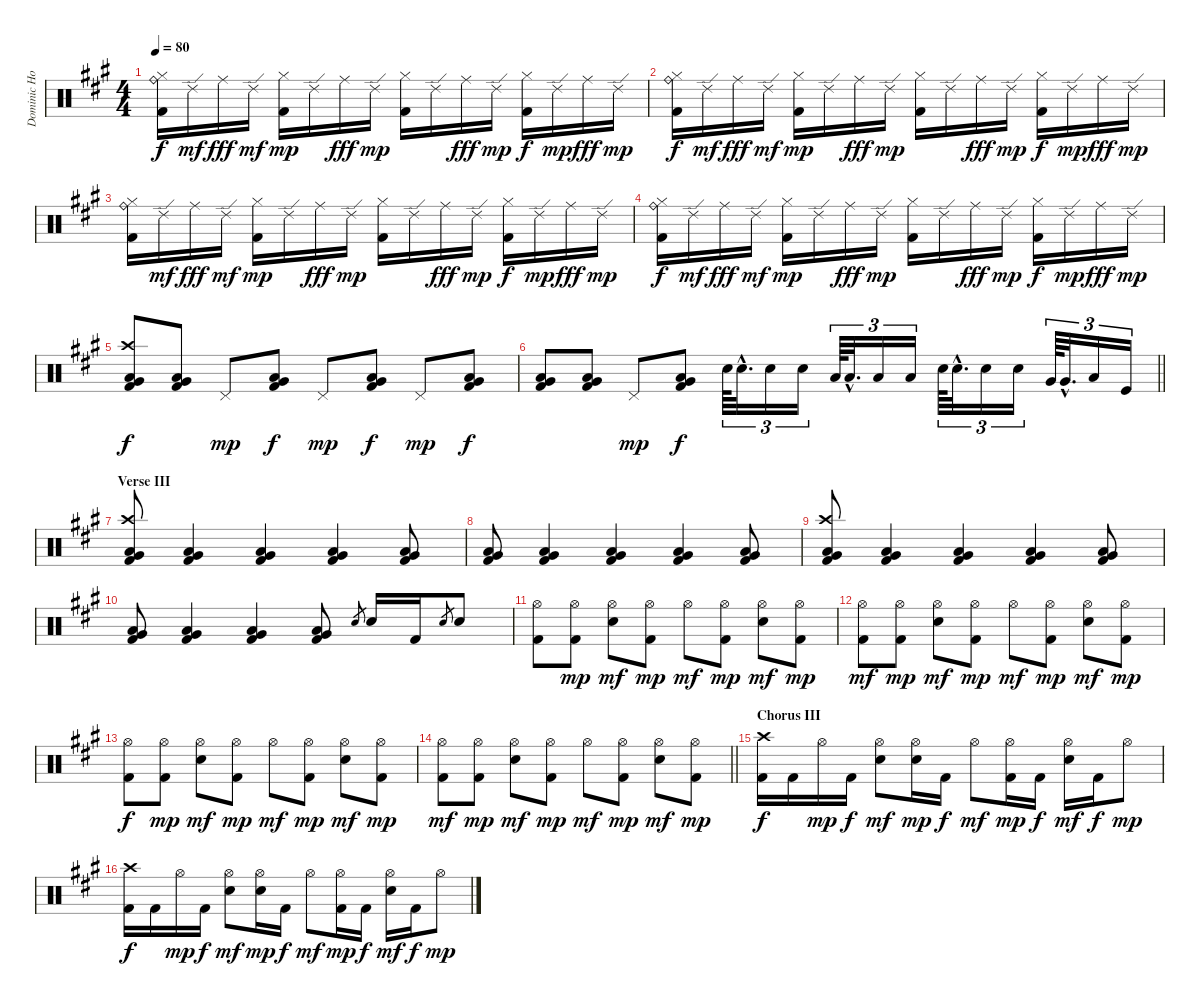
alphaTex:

\track ("Dominic Howard Drums" "Dominic Ho") {instrument percussion}
\staff {score}
\articulation defaults
\ts (4 4)
\tempo 80
\clef neutral
\ks a
("Ride (bell)" "Hi-Hat (closed)" "Kick (hit) 2").16{dy f} "Ride (edge) 2".16{dy mf} "Ride (middle)".16{dy fff} "Ride (edge) 2".16{dy mf} ("Hi-Hat (closed)" "Kick (hit) 2").16{dy mp} "Ride (edge) 2".16 "Ride (middle)".16{dy fff} "Ride (edge) 2".16{dy mp} ("Hi-Hat (closed)" "Kick (hit) 2").16 "Ride (edge) 2".16 "Ride (middle)".16{dy fff} "Ride (edge) 2".16{dy mp} ("Hi-Hat (closed)" "Kick (hit) 2").16{dy f} "Ride (edge) 2".16{dy mp} "Ride (middle)".16{dy fff} "Ride (edge) 2".16{dy mp} |
("Ride (bell)" "Hi-Hat (closed)" "Kick (hit) 2").16{dy f} "Ride (edge) 2".16{dy mf} "Ride (middle)".16{dy fff} "Ride (edge) 2".16{dy mf} ("Hi-Hat (closed)" "Kick (hit) 2").16{dy mp} "Ride (edge) 2".16 "Ride (middle)".16{dy fff} "Ride (edge) 2".16{dy mp} ("Hi-Hat (closed)" "Kick (hit) 2").16 "Ride (edge) 2".16 "Ride (middle)".16{dy fff} "Ride (edge) 2".16{dy mp} ("Hi-Hat (closed)" "Kick (hit) 2").16{dy f} "Ride (edge) 2".16{dy mp} "Ride (middle)".16{dy fff} "Ride (edge) 2".16{dy mp} |
("Ride (bell)" "Hi-Hat (closed)" "Kick (hit) 2").16 "Ride (edge) 2".16{dy mf} "Ride (middle)".16{dy fff} "Ride (edge) 2".16{dy mf} ("Hi-Hat (closed)" "Kick (hit) 2").16{dy mp} "Ride (edge) 2".16 "Ride (middle)".16{dy fff} "Ride (edge) 2".16{dy mp} ("Hi-Hat (closed)" "Kick (hit) 2").16 "Ride (edge) 2".16 "Ride (middle)".16{dy fff} "Ride (edge) 2".16{dy mp} ("Hi-Hat (closed)" "Kick (hit) 2").16{dy f} "Ride (edge) 2".16{dy mp} "Ride (middle)".16{dy fff} "Ride (edge) 2".16{dy mp} |
("Ride (bell)" "Hi-Hat (closed)" "Kick (hit) 2").16{dy f} "Ride (edge) 2".16{dy mf} "Ride (middle)".16{dy fff} "Ride (edge) 2".16{dy mf} ("Hi-Hat (closed)" "Kick (hit) 2").16{dy mp} "Ride (edge) 2".16 "Ride (middle)".16{dy fff} "Ride (edge) 2".16{dy mp} ("Hi-Hat (closed)" "Kick (hit) 2").16 "Ride (edge) 2".16 "Ride (middle)".16{dy fff} "Ride (edge) 2".16{dy mp} ("Hi-Hat (closed)" "Kick (hit) 2").16{dy f} "Ride (edge) 2".16{dy mp} "Ride (middle)".16{dy fff} "Ride (edge) 2".16{dy mp} |
("Crash high (hit)" "Low Floor Tom (hit)" "Very Low Tom (hit)" "Kick (hit) 2").8{bd 30 dy f} ("Low Floor Tom (hit)" "Very Low Tom (hit)" "Kick (hit) 2").8{bd 30} "Pedal Hi-Hat (hit)".8{dy mp} ("Low Floor Tom (hit)" "Very Low Tom (hit)" "Kick (hit) 2").8{bd 30 dy f} "Pedal Hi-Hat (hit)".8{dy mp} ("Low Floor Tom (hit)" "Very Low Tom (hit)" "Kick (hit) 2").8{bd 30 dy f} "Pedal Hi-Hat (hit)".8{dy mp} ("Low Floor Tom (hit)" "Very Low Tom (hit)" "Kick (hit) 2").8{bd 30 dy f} |
\barLineRight lightlight
("Low Floor Tom (hit)" "Very Low Tom (hit)" "Kick (hit) 2").8{bd 30} ("Low Floor Tom (hit)" "Very Low Tom (hit)" "Kick (hit) 2").8{bd 30} "Pedal Hi-Hat (hit)".8{dy mp} ("Low Floor Tom (hit)" "Very Low Tom (hit)" "Kick (hit) 2").8{bd 30 dy f} "Electric Snare (hit)".64{tu (3 2)} "Electric Snare (hit)"{hac}.32{d tu (3 2)} "Electric Snare (hit)".16{tu (3 2)} "Electric Snare (hit)".16{tu (3 2)} "Low Tom (hit)".64{tu (3 2)} "Low Tom (hit)"{hac}.32{d tu (3 2)} "Low Tom (hit)".16{tu (3 2)} "Low Tom (hit)".16{tu (3 2)} "Electric Snare (hit)".64{tu (3 2)} "Electric Snare (hit)"{hac}.32{d tu (3 2)} "Electric Snare (hit)".16{tu (3 2)} "Electric Snare (hit)".16{tu (3 2)} "Very Low Tom (hit)".64{tu (3 2)} "Very Low Tom (hit)"{hac}.32{d tu (3 2)} "Low Floor Tom (hit)".16{tu (3 2)} "Kick (hit)".16{tu (3 2)} |
\section ("" "Verse III")
("Crash high (hit)" "Low Floor Tom (hit)" "Very Low Tom (hit)" "Kick (hit) 2").8{bd 30} ("Low Floor Tom (hit)" "Very Low Tom (hit)" "Kick (hit) 2").4{bd 30} ("Low Floor Tom (hit)" "Very Low Tom (hit)" "Kick (hit) 2").4{bd 30} ("Low Floor Tom (hit)" "Very Low Tom (hit)" "Kick (hit) 2").4{bd 30} ("Low Floor Tom (hit)" "Very Low Tom (hit)" "Kick (hit) 2").8{bd 30} |
("Low Floor Tom (hit)" "Very Low Tom (hit)" "Kick (hit) 2").8{bd 30} ("Low Floor Tom (hit)" "Very Low Tom (hit)" "Kick (hit) 2").4{bd 30} ("Low Floor Tom (hit)" "Very Low Tom (hit)" "Kick (hit) 2").4{bd 30} ("Low Floor Tom (hit)" "Very Low Tom (hit)" "Kick (hit) 2").4{bd 30} ("Low Floor Tom (hit)" "Very Low Tom (hit)" "Kick (hit) 2").8{bd 30} |
("Crash high (hit)" "Low Floor Tom (hit)" "Very Low Tom (hit)" "Kick (hit) 2").8{bd 30} ("Low Floor Tom (hit)" "Very Low Tom (hit)" "Kick (hit) 2").4{bd 30} ("Low Floor Tom (hit)" "Very Low Tom (hit)" "Kick (hit) 2").4{bd 30} ("Low Floor Tom (hit)" "Very Low Tom (hit)" "Kick (hit) 2").4{bd 30} ("Low Floor Tom (hit)" "Very Low Tom (hit)" "Kick (hit) 2").8{bd 30} |
("Low Floor Tom (hit)" "Very Low Tom (hit)" "Kick (hit) 2").8{bd 30} ("Low Floor Tom (hit)" "Very Low Tom (hit)" "Kick (hit) 2").4{bd 60} ("Low Floor Tom (hit)" "Very Low Tom (hit)" "Kick (hit) 2").4{bd 60} ("Low Floor Tom (hit)" "Very Low Tom (hit)" "Kick (hit) 2").8{bd 60} "Electric Snare (hit)".8{gr} "Electric Snare (hit)".16 "Kick (hit) 2".16 "Electric Snare (hit)".8{gr} "Electric Snare (hit)".8 |
("Hi-Hat (open)" "Kick (hit) 2").8 ("Hi-Hat (open)" "Kick (hit) 2").8{dy mp} ("Hi-Hat (open)" "Electric Snare (hit)").8{dy mf} ("Hi-Hat (open)" "Kick (hit) 2").8{dy mp} "Hi-Hat (open)".8{dy mf} ("Hi-Hat (open)" "Kick (hit) 2").8{dy mp} ("Hi-Hat (open)" "Electric Snare (hit)").8{dy mf} ("Hi-Hat (open)" "Kick (hit) 2").8{dy mp} |
("Hi-Hat (open)" "Kick (hit) 2").8{dy mf} ("Hi-Hat (open)" "Kick (hit) 2").8{dy mp} ("Hi-Hat (open)" "Electric Snare (hit)").8{dy mf} ("Hi-Hat (open)" "Kick (hit) 2").8{dy mp} "Hi-Hat (open)".8{dy mf} ("Hi-Hat (open)" "Kick (hit) 2").8{dy mp} ("Hi-Hat (open)" "Electric Snare (hit)").8{dy mf} ("Hi-Hat (open)" "Kick (hit) 2").8{dy mp} |
("Hi-Hat (open)" "Kick (hit) 2").8{dy f} ("Hi-Hat (open)" "Kick (hit) 2").8{dy mp} ("Hi-Hat (open)" "Electric Snare (hit)").8{dy mf} ("Hi-Hat (open)" "Kick (hit) 2").8{dy mp} "Hi-Hat (open)".8{dy mf} ("Hi-Hat (open)" "Kick (hit) 2").8{dy mp} ("Hi-Hat (open)" "Electric Snare (hit)").8{dy mf} ("Hi-Hat (open)" "Kick (hit) 2").8{dy mp} |
\barLineRight lightlight
("Hi-Hat (open)" "Kick (hit) 2").8{dy mf} ("Hi-Hat (open)" "Kick (hit) 2").8{dy mp} ("Hi-Hat (open)" "Electric Snare (hit)").8{dy mf} ("Hi-Hat (open)" "Kick (hit) 2").8{dy mp} "Hi-Hat (open)".8{dy mf} ("Hi-Hat (open)" "Kick (hit) 2").8{dy mp} ("Hi-Hat (open)" "Electric Snare (hit)").8{dy mf} ("Hi-Hat (open)" "Kick (hit) 2").8{dy mp} |
\section ("" "Chorus III")
("Crash high (hit)" "Kick (hit) 2").16{dy f} "Kick (hit) 2".16 "Hi-Hat (open)".16{dy mp} "Kick (hit) 2".16{dy f} ("Hi-Hat (open)" "Electric Snare (hit)").8{dy mf} ("Hi-Hat (open)" "Electric Snare (hit)").16{dy mp} "Kick (hit) 2".16{dy f} "Hi-Hat (open)".8{dy mf} ("Hi-Hat (open)" "Kick (hit) 2").16{dy mp} "Kick (hit) 2".16{dy f} ("Hi-Hat (open)" "Electric Snare (hit)").16{dy mf} "Kick (hit) 2".16{dy f} "Hi-Hat (open)".8{dy mp} |
("Crash high (hit)" "Kick (hit) 2").16{dy f} "Kick (hit) 2".16 "Hi-Hat (open)".16{dy mp} "Kick (hit) 2".16{dy f} ("Hi-Hat (open)" "Electric Snare (hit)").8{dy mf} ("Hi-Hat (open)" "Electric Snare (hit)").16{dy mp} "Kick (hit) 2".16{dy f} "Hi-Hat (open)".8{dy mf} ("Hi-Hat (open)" "Kick (hit) 2").16{dy mp} "Kick (hit) 2".16{dy f} ("Hi-Hat (open)" "Electric Snare (hit)").16{dy mf} "Kick (hit) 2".16{dy f} "Hi-Hat (open)".8{dy mp}
